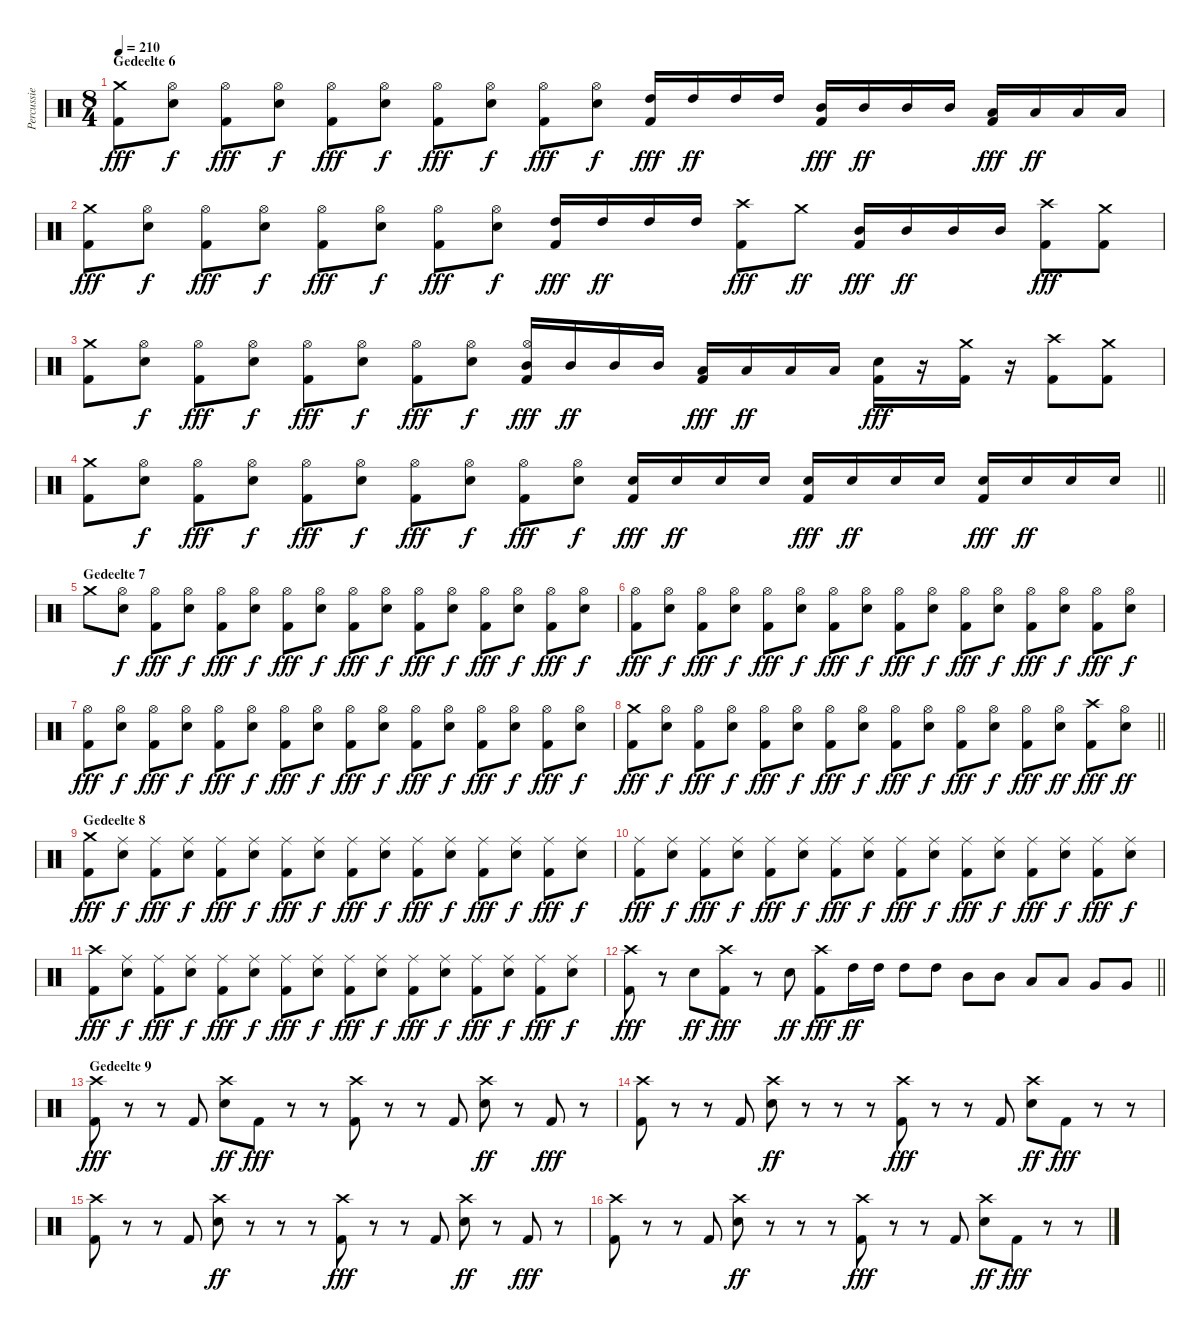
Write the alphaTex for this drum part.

\track ("Percussie" "Percussie") {instrument percussion}
\staff {score}
\articulation defaults
\ts (8 4)
\section ("" "Gedeelte 6")
\tempo 210
\clef neutral
\ks c
("Crash medium (hit)" "Kick (hit) 2").8{dy fff} ("Hi-Hat (open)" "Snare (hit) 2").8{dy f} ("Hi-Hat (open)" "Kick (hit) 2").8{dy fff} ("Hi-Hat (open)" "Snare (hit) 2").8{dy f} ("Hi-Hat (open)" "Kick (hit) 2").8{dy fff} ("Hi-Hat (open)" "Snare (hit) 2").8{dy f} ("Hi-Hat (open)" "Kick (hit) 2").8{dy fff} ("Hi-Hat (open)" "Snare (hit) 2").8{dy f} ("Hi-Hat (open)" "Kick (hit) 2").8{dy fff} ("Hi-Hat (open)" "Snare (hit) 2").8{dy f} ("High Tom (hit)" "Kick (hit) 2").16{dy fff} "High Tom (hit)".16{dy ff} "High Tom (hit)".16 "High Tom (hit)".16 ("Mid Tom (hit)" "Kick (hit) 2").16{dy fff} "Mid Tom (hit)".16{dy ff} "Mid Tom (hit)".16 "Mid Tom (hit)".16 ("Low Tom (hit)" "Kick (hit) 2").16{dy fff} "Low Tom (hit)".16{dy ff} "Low Tom (hit)".16 "Low Tom (hit)".16 |
("Crash medium (hit)" "Kick (hit) 2").8{dy fff} ("Hi-Hat (open)" "Snare (hit) 2").8{dy f} ("Hi-Hat (open)" "Kick (hit) 2").8{dy fff} ("Hi-Hat (open)" "Snare (hit) 2").8{dy f} ("Hi-Hat (open)" "Kick (hit) 2").8{dy fff} ("Hi-Hat (open)" "Snare (hit) 2").8{dy f} ("Hi-Hat (open)" "Kick (hit) 2").8{dy fff} ("Hi-Hat (open)" "Snare (hit) 2").8{dy f} ("High Tom (hit)" "Kick (hit) 2").16{dy fff} "High Tom (hit)".16{dy ff} "High Tom (hit)".16 "High Tom (hit)".16 ("Crash high (hit)" "Kick (hit) 2").8{dy fff} "Crash medium (hit)".8{dy ff} ("Mid Tom (hit)" "Kick (hit) 2").16{dy fff} "Mid Tom (hit)".16{dy ff} "Mid Tom (hit)".16 "Mid Tom (hit)".16 ("Crash high (hit)" "Kick (hit) 2").8{dy fff} ("Crash medium (hit)" "Kick (hit) 2").8 |
("Crash medium (hit)" "Kick (hit) 2").8 ("Hi-Hat (open)" "Snare (hit) 2").8{dy f} ("Hi-Hat (open)" "Kick (hit) 2").8{dy fff} ("Hi-Hat (open)" "Snare (hit) 2").8{dy f} ("Hi-Hat (open)" "Kick (hit) 2").8{dy fff} ("Hi-Hat (open)" "Snare (hit) 2").8{dy f} ("Hi-Hat (open)" "Kick (hit) 2").8{dy fff} ("Hi-Hat (open)" "Snare (hit) 2").8{dy f} ("Hi-Hat (open)" "Mid Tom (hit)" "Kick (hit) 2").16{dy fff} "Mid Tom (hit)".16{dy ff} "Mid Tom (hit)".16 "Mid Tom (hit)".16 ("Low Tom (hit)" "Kick (hit) 2").16{dy fff} "Low Tom (hit)".16{dy ff} "Low Tom (hit)".16 "Low Tom (hit)".16 ("Snare (hit) 2" "Kick (hit) 2").16{dy fff} r.16 ("Crash medium (hit)" "Kick (hit) 2").16 r.16 ("Crash high (hit)" "Kick (hit) 2").8 ("Crash medium (hit)" "Kick (hit) 2").8 |
\barLineRight lightlight
("Crash medium (hit)" "Kick (hit) 2").8 ("Hi-Hat (open)" "Snare (hit) 2").8{dy f} ("Hi-Hat (open)" "Kick (hit) 2").8{dy fff} ("Hi-Hat (open)" "Snare (hit) 2").8{dy f} ("Hi-Hat (open)" "Kick (hit) 2").8{dy fff} ("Hi-Hat (open)" "Snare (hit) 2").8{dy f} ("Hi-Hat (open)" "Kick (hit) 2").8{dy fff} ("Hi-Hat (open)" "Snare (hit) 2").8{dy f} ("Hi-Hat (open)" "Kick (hit) 2").8{dy fff} ("Hi-Hat (open)" "Snare (hit) 2").8{dy f} ("Snare (hit) 2" "Kick (hit) 2").16{dy fff} "Snare (hit) 2".16{dy ff} "Snare (hit) 2".16 "Snare (hit) 2".16 ("Snare (hit) 2" "Kick (hit) 2").16{dy fff} "Snare (hit) 2".16{dy ff} "Snare (hit) 2".16 "Snare (hit) 2".16 ("Snare (hit) 2" "Kick (hit) 2").16{dy fff} "Snare (hit) 2".16{dy ff} "Snare (hit) 2".16 "Snare (hit) 2".16 |
\section ("" "Gedeelte 7")
"Crash medium (hit)".8 ("Hi-Hat (open)" "Snare (hit) 2").8{dy f} ("Hi-Hat (open)" "Kick (hit) 2").8{dy fff} ("Hi-Hat (open)" "Snare (hit) 2").8{dy f} ("Hi-Hat (open)" "Kick (hit) 2").8{dy fff} ("Hi-Hat (open)" "Snare (hit) 2").8{dy f} ("Hi-Hat (open)" "Kick (hit) 2").8{dy fff} ("Hi-Hat (open)" "Snare (hit) 2").8{dy f} ("Hi-Hat (open)" "Kick (hit) 2").8{dy fff} ("Hi-Hat (open)" "Snare (hit) 2").8{dy f} ("Hi-Hat (open)" "Kick (hit) 2").8{dy fff} ("Hi-Hat (open)" "Snare (hit) 2").8{dy f} ("Hi-Hat (open)" "Kick (hit) 2").8{dy fff} ("Hi-Hat (open)" "Snare (hit) 2").8{dy f} ("Hi-Hat (open)" "Kick (hit) 2").8{dy fff} ("Hi-Hat (open)" "Snare (hit) 2").8{dy f} |
("Hi-Hat (open)" "Kick (hit) 2").8{dy fff} ("Hi-Hat (open)" "Snare (hit) 2").8{dy f} ("Hi-Hat (open)" "Kick (hit) 2").8{dy fff} ("Hi-Hat (open)" "Snare (hit) 2").8{dy f} ("Hi-Hat (open)" "Kick (hit) 2").8{dy fff} ("Hi-Hat (open)" "Snare (hit) 2").8{dy f} ("Hi-Hat (open)" "Kick (hit) 2").8{dy fff} ("Hi-Hat (open)" "Snare (hit) 2").8{dy f} ("Hi-Hat (open)" "Kick (hit) 2").8{dy fff} ("Hi-Hat (open)" "Snare (hit) 2").8{dy f} ("Hi-Hat (open)" "Kick (hit) 2").8{dy fff} ("Hi-Hat (open)" "Snare (hit) 2").8{dy f} ("Hi-Hat (open)" "Kick (hit) 2").8{dy fff} ("Hi-Hat (open)" "Snare (hit) 2").8{dy f} ("Hi-Hat (open)" "Kick (hit) 2").8{dy fff} ("Hi-Hat (open)" "Snare (hit) 2").8{dy f} |
("Hi-Hat (open)" "Kick (hit) 2").8{dy fff} ("Hi-Hat (open)" "Snare (hit) 2").8{dy f} ("Hi-Hat (open)" "Kick (hit) 2").8{dy fff} ("Hi-Hat (open)" "Snare (hit) 2").8{dy f} ("Hi-Hat (open)" "Kick (hit) 2").8{dy fff} ("Hi-Hat (open)" "Snare (hit) 2").8{dy f} ("Hi-Hat (open)" "Kick (hit) 2").8{dy fff} ("Hi-Hat (open)" "Snare (hit) 2").8{dy f} ("Hi-Hat (open)" "Kick (hit) 2").8{dy fff} ("Hi-Hat (open)" "Snare (hit) 2").8{dy f} ("Hi-Hat (open)" "Kick (hit) 2").8{dy fff} ("Hi-Hat (open)" "Snare (hit) 2").8{dy f} ("Hi-Hat (open)" "Kick (hit) 2").8{dy fff} ("Hi-Hat (open)" "Snare (hit) 2").8{dy f} ("Hi-Hat (open)" "Kick (hit) 2").8{dy fff} ("Hi-Hat (open)" "Snare (hit) 2").8{dy f} |
\barLineRight lightlight
("Crash medium (hit)" "Kick (hit) 2").8{dy fff} ("Hi-Hat (open)" "Snare (hit) 2").8{dy f} ("Hi-Hat (open)" "Kick (hit) 2").8{dy fff} ("Hi-Hat (open)" "Snare (hit) 2").8{dy f} ("Hi-Hat (open)" "Kick (hit) 2").8{dy fff} ("Hi-Hat (open)" "Snare (hit) 2").8{dy f} ("Hi-Hat (open)" "Kick (hit) 2").8{dy fff} ("Hi-Hat (open)" "Snare (hit) 2").8{dy f} ("Hi-Hat (open)" "Kick (hit) 2").8{dy fff} ("Hi-Hat (open)" "Snare (hit) 2").8{dy f} ("Hi-Hat (open)" "Kick (hit) 2").8{dy fff} ("Hi-Hat (open)" "Snare (hit) 2").8{dy f} ("Hi-Hat (open)" "Kick (hit) 2").8{dy fff} ("Hi-Hat (open)" "Snare (hit) 2").8{dy ff} ("Crash high (hit)" "Kick (hit) 2").8{dy fff} ("Hi-Hat (open)" "Snare (hit) 2").8{dy ff} |
\section ("" "Gedeelte 8")
("Crash medium (hit)" "Kick (hit) 2").8{dy fff} ("Ride (middle)" "Snare (hit) 2").8{dy f} ("Ride (middle)" "Kick (hit) 2").8{dy fff} ("Ride (middle)" "Snare (hit) 2").8{dy f} ("Ride (middle)" "Kick (hit) 2").8{dy fff} ("Ride (middle)" "Snare (hit) 2").8{dy f} ("Ride (middle)" "Kick (hit) 2").8{dy fff} ("Ride (middle)" "Snare (hit) 2").8{dy f} ("Ride (middle)" "Kick (hit) 2").8{dy fff} ("Ride (middle)" "Snare (hit) 2").8{dy f} ("Ride (middle)" "Kick (hit) 2").8{dy fff} ("Ride (middle)" "Snare (hit) 2").8{dy f} ("Ride (middle)" "Kick (hit) 2").8{dy fff} ("Ride (middle)" "Snare (hit) 2").8{dy f} ("Ride (middle)" "Kick (hit) 2").8{dy fff} ("Ride (middle)" "Snare (hit) 2").8{dy f} |
("Ride (middle)" "Kick (hit) 2").8{dy fff} ("Ride (middle)" "Snare (hit) 2").8{dy f} ("Ride (middle)" "Kick (hit) 2").8{dy fff} ("Ride (middle)" "Snare (hit) 2").8{dy f} ("Ride (middle)" "Kick (hit) 2").8{dy fff} ("Ride (middle)" "Snare (hit) 2").8{dy f} ("Ride (middle)" "Kick (hit) 2").8{dy fff} ("Ride (middle)" "Snare (hit) 2").8{dy f} ("Ride (middle)" "Kick (hit) 2").8{dy fff} ("Ride (middle)" "Snare (hit) 2").8{dy f} ("Ride (middle)" "Kick (hit) 2").8{dy fff} ("Ride (middle)" "Snare (hit) 2").8{dy f} ("Ride (middle)" "Kick (hit) 2").8{dy fff} ("Ride (middle)" "Snare (hit) 2").8{dy f} ("Ride (middle)" "Kick (hit) 2").8{dy fff} ("Ride (middle)" "Snare (hit) 2").8{dy f} |
("Crash high (hit)" "Kick (hit) 2").8{dy fff} ("Ride (middle)" "Snare (hit) 2").8{dy f} ("Ride (middle)" "Kick (hit) 2").8{dy fff} ("Ride (middle)" "Snare (hit) 2").8{dy f} ("Ride (middle)" "Kick (hit) 2").8{dy fff} ("Ride (middle)" "Snare (hit) 2").8{dy f} ("Ride (middle)" "Kick (hit) 2").8{dy fff} ("Ride (middle)" "Snare (hit) 2").8{dy f} ("Ride (middle)" "Kick (hit) 2").8{dy fff} ("Ride (middle)" "Snare (hit) 2").8{dy f} ("Ride (middle)" "Kick (hit) 2").8{dy fff} ("Ride (middle)" "Snare (hit) 2").8{dy f} ("Ride (middle)" "Kick (hit) 2").8{dy fff} ("Ride (middle)" "Snare (hit) 2").8{dy f} ("Ride (middle)" "Kick (hit) 2").8{dy fff} ("Ride (middle)" "Snare (hit) 2").8{dy f} |
\barLineRight lightlight
("Crash high (hit)" "Kick (hit) 2").8{dy fff} r.8 "Snare (hit) 2".8{dy ff} ("Crash high (hit)" "Kick (hit) 2").8{dy fff} r.8 "Snare (hit) 2".8{dy ff} ("Crash high (hit)" "Kick (hit) 2").8{dy fff} "High Tom (hit)".16{dy ff} "High Tom (hit)".16 "High Tom (hit)".8 "High Tom (hit)".8 "Mid Tom (hit)".8 "Mid Tom (hit)".8 "Low Tom (hit)".8 "Low Tom (hit)".8 "Very Low Tom (hit)".8 "Very Low Tom (hit)".8 |
\section ("" "Gedeelte 9")
("Crash high (hit)" "Kick (hit) 2").8{dy fff} r.8 r.8 "Kick (hit) 2".8 ("Crash high (hit)" "Snare (hit) 2").8{dy ff} "Kick (hit) 2".8{dy fff} r.8 r.8 ("Crash high (hit)" "Kick (hit) 2").8 r.8 r.8 "Kick (hit) 2".8 ("Crash high (hit)" "Snare (hit) 2").8{dy ff} r.8 "Kick (hit) 2".8{dy fff} r.8 |
("Crash high (hit)" "Kick (hit) 2").8 r.8 r.8 "Kick (hit) 2".8 ("Crash high (hit)" "Snare (hit) 2").8{dy ff} r.8 r.8 r.8 ("Crash high (hit)" "Kick (hit) 2").8{dy fff} r.8 r.8 "Kick (hit) 2".8 ("Crash high (hit)" "Snare (hit) 2").8{dy ff} "Kick (hit) 2".8{dy fff} r.8 r.8 |
("Crash high (hit)" "Kick (hit) 2").8 r.8 r.8 "Kick (hit) 2".8 ("Crash high (hit)" "Snare (hit) 2").8{dy ff} r.8 r.8 r.8 ("Crash high (hit)" "Kick (hit) 2").8{dy fff} r.8 r.8 "Kick (hit) 2".8 ("Crash high (hit)" "Snare (hit) 2").8{dy ff} r.8 "Kick (hit) 2".8{dy fff} r.8 |
("Crash high (hit)" "Kick (hit) 2").8 r.8 r.8 "Kick (hit) 2".8 ("Crash high (hit)" "Snare (hit) 2").8{dy ff} r.8 r.8 r.8 ("Crash high (hit)" "Kick (hit) 2").8{dy fff} r.8 r.8 "Kick (hit) 2".8 ("Crash high (hit)" "Snare (hit) 2").8{dy ff} "Kick (hit) 2".8{dy fff} r.8 r.8
